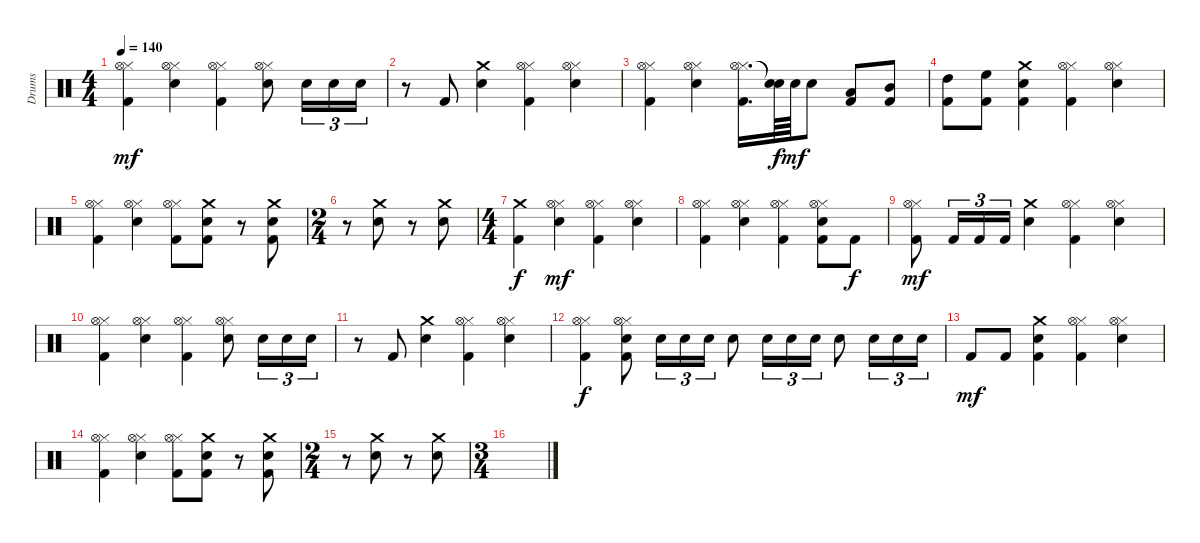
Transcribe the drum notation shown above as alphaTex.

\track ("Drums" "Drums") {instrument percussion}
\staff {score}
\articulation defaults
\ts (4 4)
\tempo 140
\clef neutral
\ks c
("Hi-Hat (closed)" "Hi-Hat (open)" "Kick (hit) 2").4{dy mf} ("Hi-Hat (closed)" "Hi-Hat (open)" "Electric Snare (hit)").4 ("Hi-Hat (closed)" "Hi-Hat (open)" "Kick (hit) 2").4 ("Hi-Hat (closed)" "Hi-Hat (open)" "Electric Snare (hit)").8 "Electric Snare (hit)".16{tu (3 2)} "Electric Snare (hit)".16{tu (3 2)} "Electric Snare (hit)".16{tu (3 2)} |
r.8 "Kick (hit) 2".8 ("Crash medium (hit)" "Electric Snare (hit)").4 ("Hi-Hat (closed)" "Hi-Hat (open)" "Kick (hit) 2").4 ("Hi-Hat (closed)" "Hi-Hat (open)" "Electric Snare (hit)").4 |
("Hi-Hat (closed)" "Hi-Hat (open)" "Kick (hit) 2").4 ("Hi-Hat (closed)" "Hi-Hat (open)" "Electric Snare (hit)").4 ("Hi-Hat (closed)" "Hi-Hat (open)" "Kick (hit) 2").16{d} ("Snare (hit)"{t} "Snare (hit)"{t}).64{dy f} "Electric Snare (hit)".64{dy mf} "Electric Snare (hit)".8 ("Low Tom (hit)" "Kick (hit) 2").8 ("Mid Tom (hit)" "Kick (hit) 2").8 |
("High Tom (hit)" "Kick (hit) 2").8 ("High Floor Tom (hit)" "Kick (hit) 2").8 ("Crash medium (hit)" "Electric Snare (hit)" "Kick (hit) 2").4 ("Hi-Hat (closed)" "Hi-Hat (open)" "Kick (hit) 2").4 ("Hi-Hat (closed)" "Hi-Hat (open)" "Electric Snare (hit)").4 |
("Hi-Hat (closed)" "Hi-Hat (open)" "Kick (hit) 2").4 ("Hi-Hat (closed)" "Hi-Hat (open)" "Electric Snare (hit)").4 ("Hi-Hat (closed)" "Hi-Hat (open)" "Kick (hit) 2").8 ("Crash medium (hit)" "Electric Snare (hit)" "Kick (hit) 2").8 r.8 ("Crash medium (hit)" "Electric Snare (hit)" "Kick (hit) 2").8 |
\ts (2 4)
r.8 ("Crash medium (hit)" "Electric Snare (hit)").8 r.8 ("Crash medium (hit)" "Electric Snare (hit)").8 |
\ts (4 4)
("Crash medium (hit)" "Kick (hit) 2").4{dy f} ("Hi-Hat (closed)" "Hi-Hat (open)" "Electric Snare (hit)").4{dy mf} ("Hi-Hat (closed)" "Hi-Hat (open)" "Kick (hit) 2").4 ("Hi-Hat (closed)" "Hi-Hat (open)" "Electric Snare (hit)").4 |
("Hi-Hat (closed)" "Hi-Hat (open)" "Kick (hit) 2").4 ("Hi-Hat (closed)" "Hi-Hat (open)" "Electric Snare (hit)").4 ("Hi-Hat (closed)" "Hi-Hat (open)" "Kick (hit) 2").4 ("Hi-Hat (closed)" "Hi-Hat (open)" "Electric Snare (hit)" "Kick (hit) 2").8 "Kick (hit) 2".8{dy f} |
("Hi-Hat (closed)" "Hi-Hat (open)" "Kick (hit) 2").8{dy mf} "Kick (hit) 2".16{tu (3 2)} "Kick (hit) 2".16{tu (3 2)} "Kick (hit) 2".16{tu (3 2)} ("Crash medium (hit)" "Electric Snare (hit)").4 ("Hi-Hat (closed)" "Hi-Hat (open)" "Kick (hit) 2").4 ("Hi-Hat (closed)" "Hi-Hat (open)" "Electric Snare (hit)").4 |
("Hi-Hat (closed)" "Hi-Hat (open)" "Kick (hit) 2").4 ("Hi-Hat (closed)" "Hi-Hat (open)" "Electric Snare (hit)").4 ("Hi-Hat (closed)" "Hi-Hat (open)" "Kick (hit) 2").4 ("Hi-Hat (closed)" "Hi-Hat (open)" "Electric Snare (hit)").8 "Electric Snare (hit)".16{tu (3 2)} "Electric Snare (hit)".16{tu (3 2)} "Electric Snare (hit)".16{tu (3 2)} |
r.8 "Kick (hit) 2".8 ("Crash medium (hit)" "Electric Snare (hit)").4 ("Hi-Hat (closed)" "Hi-Hat (open)" "Kick (hit) 2").4 ("Hi-Hat (closed)" "Hi-Hat (open)" "Electric Snare (hit)").4 |
("Hi-Hat (closed)" "Hi-Hat (open)" "Kick (hit) 2").4{dy f} ("Hi-Hat (closed)" "Hi-Hat (open)" "Electric Snare (hit)" "Kick (hit) 2").8 "Electric Snare (hit)".16{tu (3 2)} "Electric Snare (hit)".16{tu (3 2)} "Electric Snare (hit)".16{tu (3 2)} "Electric Snare (hit)".8 "Electric Snare (hit)".16{tu (3 2)} "Electric Snare (hit)".16{tu (3 2)} "Electric Snare (hit)".16{tu (3 2)} "Electric Snare (hit)".8 "Electric Snare (hit)".16{tu (3 2)} "Electric Snare (hit)".16{tu (3 2)} "Electric Snare (hit)".16{tu (3 2)} |
"Kick (hit) 2".8{dy mf} "Kick (hit) 2".8 ("Crash medium (hit)" "Electric Snare (hit)" "Kick (hit) 2").4 ("Hi-Hat (closed)" "Hi-Hat (open)" "Kick (hit) 2").4 ("Hi-Hat (closed)" "Hi-Hat (open)" "Electric Snare (hit)").4 |
("Hi-Hat (closed)" "Hi-Hat (open)" "Kick (hit) 2").4 ("Hi-Hat (closed)" "Hi-Hat (open)" "Electric Snare (hit)").4 ("Hi-Hat (closed)" "Hi-Hat (open)" "Kick (hit) 2").8 ("Crash medium (hit)" "Electric Snare (hit)" "Kick (hit) 2").8 r.8 ("Crash medium (hit)" "Electric Snare (hit)" "Kick (hit) 2").8 |
\ts (2 4)
r.8 ("Crash medium (hit)" "Electric Snare (hit)").8 r.8 ("Crash medium (hit)" "Electric Snare (hit)").8 |
\ts (3 4)
